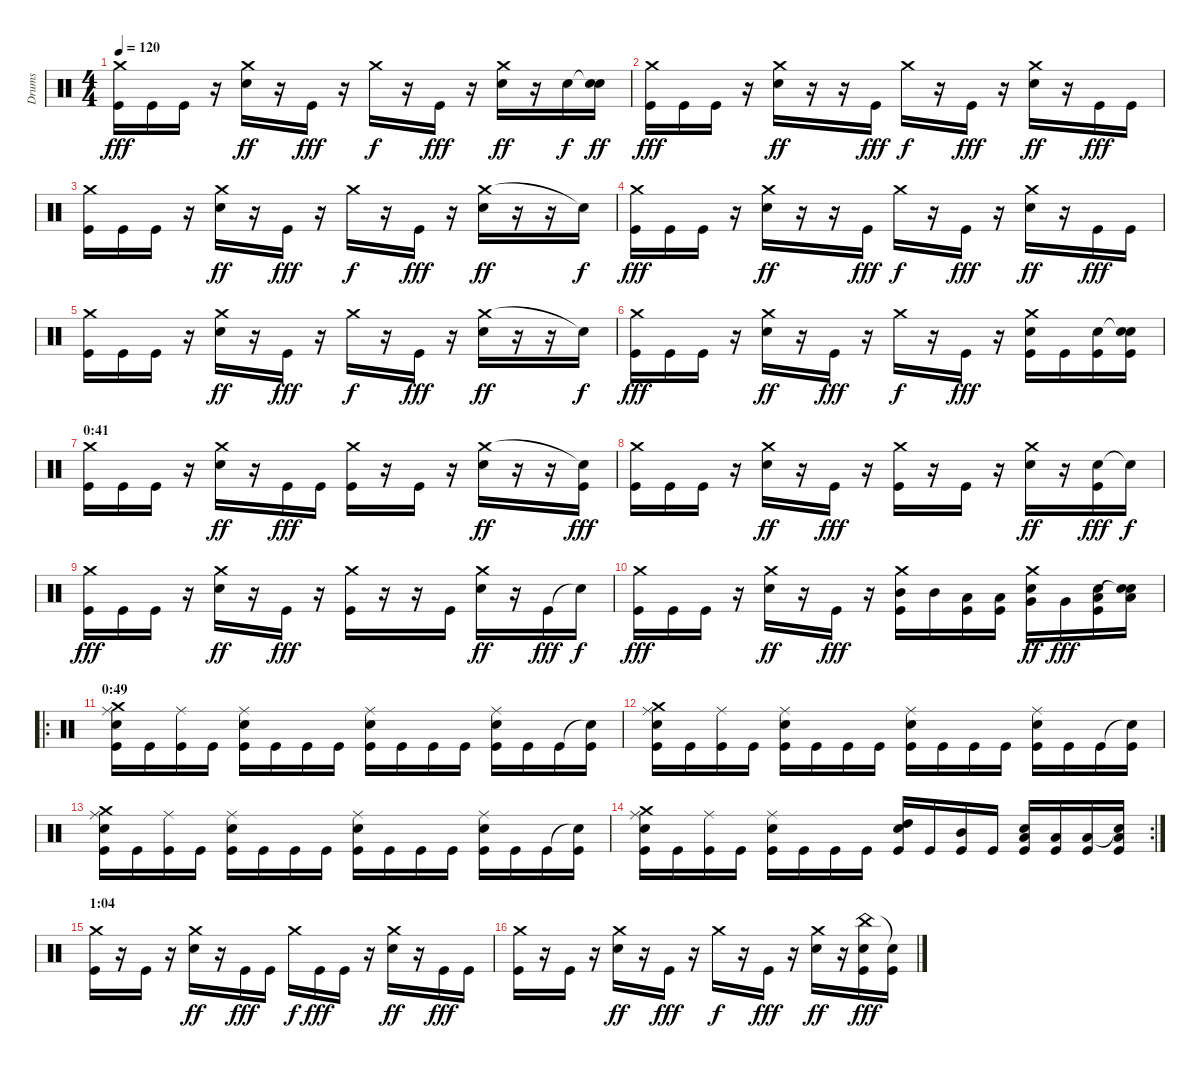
\track ("Drums" "Drums") {instrument percussion}
\staff {score}
\articulation defaults
\ts (4 4)
\tempo 120
\clef neutral
\ks c
("Crash medium (hit)" "Kick (hit)").16{dy fff} "Kick (hit)".16 "Kick (hit)".16 r.16 ("Crash medium (hit)" "Electric Snare (hit)").16{dy ff} r.16 "Kick (hit)".16{dy fff} r.16 "Crash medium (hit)".16{dy f} r.16 "Kick (hit)".16{dy fff} r.16 ("Crash medium (hit)" "Electric Snare (hit)").16{dy ff} r.16 "Electric Snare (hit)".16{dy f} ("Snare (hit)"{t} "Electric Snare (hit)").16{dy ff} |
("Crash medium (hit)" "Kick (hit)").16{dy fff} "Kick (hit)".16 "Kick (hit)".16 r.16 ("Crash medium (hit)" "Electric Snare (hit)").16{dy ff} r.16 r.16 "Kick (hit)".16{dy fff} "Crash medium (hit)".16{dy f} r.16 "Kick (hit)".16{dy fff} r.16 ("Crash medium (hit)" "Electric Snare (hit)").16{dy ff} r.16 "Kick (hit)".16{dy fff} "Kick (hit)".16 |
("Crash medium (hit)" "Kick (hit)").16 "Kick (hit)".16 "Kick (hit)".16 r.16 ("Crash medium (hit)" "Electric Snare (hit)").16{dy ff} r.16 "Kick (hit)".16{dy fff} r.16 "Crash medium (hit)".16{dy f} r.16 "Kick (hit)".16{dy fff} r.16 ("Crash medium (hit)" "Electric Snare (hit)").16{dy ff} r.16 r.16 "Snare (hit)"{t}.16{dy f} |
("Crash medium (hit)" "Kick (hit)").16{dy fff} "Kick (hit)".16 "Kick (hit)".16 r.16 ("Crash medium (hit)" "Electric Snare (hit)").16{dy ff} r.16 r.16 "Kick (hit)".16{dy fff} "Crash medium (hit)".16{dy f} r.16 "Kick (hit)".16{dy fff} r.16 ("Crash medium (hit)" "Electric Snare (hit)").16{dy ff} r.16 "Kick (hit)".16{dy fff} "Kick (hit)".16 |
("Crash medium (hit)" "Kick (hit)").16 "Kick (hit)".16 "Kick (hit)".16 r.16 ("Crash medium (hit)" "Electric Snare (hit)").16{dy ff} r.16 "Kick (hit)".16{dy fff} r.16 "Crash medium (hit)".16{dy f} r.16 "Kick (hit)".16{dy fff} r.16 ("Crash medium (hit)" "Electric Snare (hit)").16{dy ff} r.16 r.16 "Snare (hit)"{t}.16{dy f} |
("Crash medium (hit)" "Kick (hit)").16{dy fff} "Kick (hit)".16 "Kick (hit)".16 r.16 ("Crash medium (hit)" "Electric Snare (hit)").16{dy ff} r.16 "Kick (hit)".16{dy fff} r.16 "Crash medium (hit)".16{dy f} r.16 "Kick (hit)".16{dy fff} r.16 ("Crash medium (hit)" "Electric Snare (hit)" "Kick (hit)").16 "Kick (hit)".16 ("Electric Snare (hit)" "Kick (hit)").16 ("Snare (hit)"{t} "Electric Snare (hit)" "Kick (hit)").16 |
\section ("" "0:41")
("Crash medium (hit)" "Kick (hit)").16 "Kick (hit)".16 "Kick (hit)".16 r.16 ("Crash medium (hit)" "Electric Snare (hit)").16{dy ff} r.16 "Kick (hit)".16{dy fff} "Kick (hit)".16 ("Crash medium (hit)" "Kick (hit)").16 r.16 "Kick (hit)".16 r.16 ("Crash medium (hit)" "Electric Snare (hit)").16{dy ff} r.16 r.16 ("Snare (hit)"{t} "Kick (hit)").16{dy fff} |
("Crash medium (hit)" "Kick (hit)").16 "Kick (hit)".16 "Kick (hit)".16 r.16 ("Crash medium (hit)" "Electric Snare (hit)").16{dy ff} r.16 "Kick (hit)".16{dy fff} r.16 ("Crash medium (hit)" "Kick (hit)").16 r.16 "Kick (hit)".16 r.16 ("Crash medium (hit)" "Electric Snare (hit)").16{dy ff} r.16 ("Electric Snare (hit)" "Kick (hit)").16{dy fff} "Snare (hit)"{t}.16{dy f} |
("Crash medium (hit)" "Kick (hit)").16{dy fff} "Kick (hit)".16 "Kick (hit)".16 r.16 ("Crash medium (hit)" "Electric Snare (hit)").16{dy ff} r.16 "Kick (hit)".16{dy fff} r.16 ("Crash medium (hit)" "Kick (hit)").16 r.16 r.16 "Kick (hit)".16 ("Crash medium (hit)" "Electric Snare (hit)").16{dy ff} r.16 "Kick (hit)".16{dy fff} "Snare (hit)"{t}.16{dy f} |
("Crash medium (hit)" "Kick (hit)").16{dy fff} "Kick (hit)".16 "Kick (hit)".16 r.16 ("Crash medium (hit)" "Electric Snare (hit)").16{dy ff} r.16 "Kick (hit)".16{dy fff} r.16 ("Crash medium (hit)" "Mid Tom (hit)" "Kick (hit)").16 "Mid Tom (hit)".16 ("Low Tom (hit)" "Kick (hit)").16 ("Low Tom (hit)" "Kick (hit)").16 ("Crash medium (hit)" "Very Low Tom (hit)" "Electric Snare (hit)").16{dy ff} "Very Low Tom (hit)".16{dy fff} ("Low Floor Tom (hit)" "Electric Snare (hit)" "Kick (hit)").16 ("Snare (hit)"{t} "Low Floor Tom (hit)" "Electric Snare (hit)").16 |
\ro
\section ("" "0:49")
("Ride (middle)" "Crash medium (hit)" "Snare (hit) 2" "Kick (hit)").16 "Kick (hit)".16 ("Ride (middle)" "Kick (hit)").16 "Kick (hit)".16 ("Ride (middle)" "Snare (hit) 2" "Kick (hit)").16 "Kick (hit)".16 "Kick (hit)".16 "Kick (hit)".16 ("Ride (middle)" "Snare (hit) 2" "Kick (hit)").16 "Kick (hit)".16 "Kick (hit)".16 "Kick (hit)".16 ("Ride (middle)" "Snare (hit) 2" "Kick (hit)").16 "Kick (hit)".16 "Kick (hit)".16 ("Snare (hit)"{t} "Kick (hit)").16 |
("Ride (middle)" "Crash medium (hit)" "Snare (hit) 2" "Kick (hit)").16 "Kick (hit)".16 ("Ride (middle)" "Kick (hit)").16 "Kick (hit)".16 ("Ride (middle)" "Snare (hit) 2" "Kick (hit)").16 "Kick (hit)".16 "Kick (hit)".16 "Kick (hit)".16 ("Ride (middle)" "Snare (hit) 2" "Kick (hit)").16 "Kick (hit)".16 "Kick (hit)".16 "Kick (hit)".16 ("Ride (middle)" "Snare (hit) 2" "Kick (hit)").16 "Kick (hit)".16 "Kick (hit)".16 ("Snare (hit)"{t} "Kick (hit)").16 |
("Ride (middle)" "Crash medium (hit)" "Snare (hit) 2" "Kick (hit)").16 "Kick (hit)".16 ("Ride (middle)" "Kick (hit)").16 "Kick (hit)".16 ("Ride (middle)" "Snare (hit) 2" "Kick (hit)").16 "Kick (hit)".16 "Kick (hit)".16 "Kick (hit)".16 ("Ride (middle)" "Snare (hit) 2" "Kick (hit)").16 "Kick (hit)".16 "Kick (hit)".16 "Kick (hit)".16 ("Ride (middle)" "Snare (hit) 2" "Kick (hit)").16 "Kick (hit)".16 "Kick (hit)".16 ("Snare (hit)"{t} "Kick (hit)").16 |
\rc 2
("Ride (middle)" "Crash medium (hit)" "Snare (hit) 2" "Kick (hit)").16 "Kick (hit)".16 ("Ride (middle)" "Kick (hit)").16 "Kick (hit)".16 ("Ride (middle)" "Snare (hit) 2" "Kick (hit)").16 "Kick (hit)".16 "Kick (hit)".16 "Kick (hit)".16 ("High Tom (hit)" "Snare (hit) 2" "Kick (hit)").16 "Kick (hit)".16 ("Mid Tom (hit)" "Kick (hit)").16 "Kick (hit)".16 ("Low Tom (hit)" "Snare (hit) 2" "Kick (hit)").16 ("Low Tom (hit)" "Kick (hit)").16 ("Low Floor Tom (hit)" "Kick (hit)").16 ("Snare (hit)"{t} "Low Floor Tom (hit)" "Kick (hit)").16 |
\section ("" "1:04")
("Crash medium (hit)" "Kick (hit)").16 r.16 "Kick (hit)".16 r.16 ("Crash medium (hit)" "Electric Snare (hit)").16{dy ff} r.16 "Kick (hit)".16{dy fff} "Kick (hit)".16 "Crash medium (hit)".16{dy f} "Kick (hit)".16{dy fff} "Kick (hit)".16 r.16 ("Crash medium (hit)" "Electric Snare (hit)").16{dy ff} r.16 "Kick (hit)".16{dy fff} "Kick (hit)".16 |
("Crash medium (hit)" "Kick (hit)").16 r.16 "Kick (hit)".16 r.16 ("Crash medium (hit)" "Electric Snare (hit)").16{dy ff} r.16 "Kick (hit)".16{dy fff} r.16 "Crash medium (hit)".16{dy f} r.16 "Kick (hit)".16{dy fff} r.16 ("Crash medium (hit)" "Electric Snare (hit)").16{dy ff} r.16 ("China (hit)" "Electric Snare (hit)" "Kick (hit)").16{dy fff} ("Snare (hit)"{t} "Kick (hit)").16
